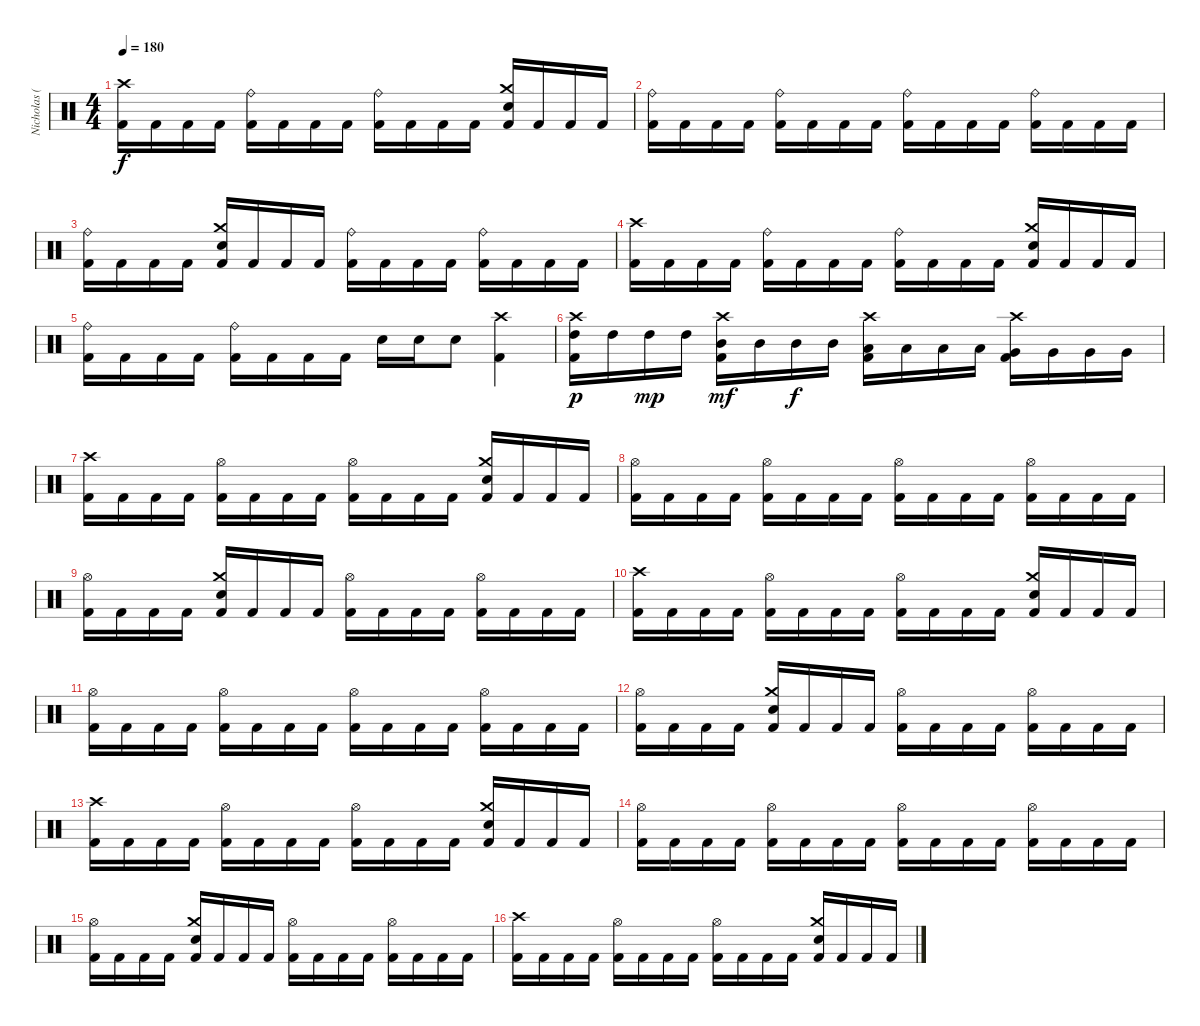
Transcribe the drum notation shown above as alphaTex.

\track ("Nicholas (Drums)" "Nicholas (") {instrument percussion}
\staff {score}
\articulation defaults
\ts (4 4)
\tempo 180
\clef neutral
\ks c
("Crash high (hit)" "Kick (hit) 2").16{dy f} "Kick (hit) 2".16 "Kick (hit) 2".16 "Kick (hit) 2".16 ("Ride (bell)" "Kick (hit) 2").16 "Kick (hit) 2".16 "Kick (hit) 2".16 "Kick (hit) 2".16 ("Ride (bell)" "Kick (hit) 2").16 "Kick (hit) 2".16 "Kick (hit) 2".16 "Kick (hit) 2".16 ("Crash medium (hit)" "Electric Snare (hit)" "Kick (hit) 2").16 "Kick (hit) 2".16 "Kick (hit) 2".16 "Kick (hit) 2".16 |
("Ride (bell)" "Kick (hit) 2").16 "Kick (hit) 2".16 "Kick (hit) 2".16 "Kick (hit) 2".16 ("Ride (bell)" "Kick (hit) 2").16 "Kick (hit) 2".16 "Kick (hit) 2".16 "Kick (hit) 2".16 ("Ride (bell)" "Kick (hit) 2").16 "Kick (hit) 2".16 "Kick (hit) 2".16 "Kick (hit) 2".16 ("Ride (bell)" "Kick (hit) 2").16 "Kick (hit) 2".16 "Kick (hit) 2".16 "Kick (hit) 2".16 |
("Ride (bell)" "Kick (hit) 2").16 "Kick (hit) 2".16 "Kick (hit) 2".16 "Kick (hit) 2".16 ("Crash medium (hit)" "Electric Snare (hit)" "Kick (hit) 2").16 "Kick (hit) 2".16 "Kick (hit) 2".16 "Kick (hit) 2".16 ("Ride (bell)" "Kick (hit) 2").16 "Kick (hit) 2".16 "Kick (hit) 2".16 "Kick (hit) 2".16 ("Ride (bell)" "Kick (hit) 2").16 "Kick (hit) 2".16 "Kick (hit) 2".16 "Kick (hit) 2".16 |
("Crash high (hit)" "Kick (hit) 2").16 "Kick (hit) 2".16 "Kick (hit) 2".16 "Kick (hit) 2".16 ("Ride (bell)" "Kick (hit) 2").16 "Kick (hit) 2".16 "Kick (hit) 2".16 "Kick (hit) 2".16 ("Ride (bell)" "Kick (hit) 2").16 "Kick (hit) 2".16 "Kick (hit) 2".16 "Kick (hit) 2".16 ("Crash medium (hit)" "Electric Snare (hit)" "Kick (hit) 2").16 "Kick (hit) 2".16 "Kick (hit) 2".16 "Kick (hit) 2".16 |
("Ride (bell)" "Kick (hit) 2").16 "Kick (hit) 2".16 "Kick (hit) 2".16 "Kick (hit) 2".16 ("Ride (bell)" "Kick (hit) 2").16 "Kick (hit) 2".16 "Kick (hit) 2".16 "Kick (hit) 2".16 "Electric Snare (hit)".16 "Electric Snare (hit)".16 "Electric Snare (hit)".8 ("Crash high (hit)" "Kick (hit) 2").4 |
("Crash high (hit)" "High Tom (hit)" "Kick (hit) 2").16{dy p} "High Tom (hit)".16 "High Tom (hit)".16{dy mp} "High Tom (hit)".16 ("Crash high (hit)" "Mid Tom (hit)" "Kick (hit) 2").16{dy mf} "Mid Tom (hit)".16 "Mid Tom (hit)".16{dy f} "Mid Tom (hit)".16 ("Crash high (hit)" "Low Tom (hit)" "Kick (hit) 2").16 "Low Tom (hit)".16 "Low Tom (hit)".16 "Low Tom (hit)".16 ("Crash high (hit)" "Very Low Tom (hit)" "Kick (hit) 2").16 "Very Low Tom (hit)".16 "Very Low Tom (hit)".16 "Very Low Tom (hit)".16 |
("Crash high (hit)" "Kick (hit) 2").16 "Kick (hit) 2".16 "Kick (hit) 2".16 "Kick (hit) 2".16 ("Hi-Hat (open)" "Kick (hit) 2").16 "Kick (hit) 2".16 "Kick (hit) 2".16 "Kick (hit) 2".16 ("Hi-Hat (open)" "Kick (hit) 2").16 "Kick (hit) 2".16 "Kick (hit) 2".16 "Kick (hit) 2".16 ("Crash medium (hit)" "Electric Snare (hit)" "Kick (hit) 2").16 "Kick (hit) 2".16 "Kick (hit) 2".16 "Kick (hit) 2".16 |
("Hi-Hat (open)" "Kick (hit) 2").16 "Kick (hit) 2".16 "Kick (hit) 2".16 "Kick (hit) 2".16 ("Hi-Hat (open)" "Kick (hit) 2").16 "Kick (hit) 2".16 "Kick (hit) 2".16 "Kick (hit) 2".16 ("Hi-Hat (open)" "Kick (hit) 2").16 "Kick (hit) 2".16 "Kick (hit) 2".16 "Kick (hit) 2".16 ("Hi-Hat (open)" "Kick (hit) 2").16 "Kick (hit) 2".16 "Kick (hit) 2".16 "Kick (hit) 2".16 |
("Hi-Hat (open)" "Kick (hit) 2").16 "Kick (hit) 2".16 "Kick (hit) 2".16 "Kick (hit) 2".16 ("Crash medium (hit)" "Electric Snare (hit)" "Kick (hit) 2").16 "Kick (hit) 2".16 "Kick (hit) 2".16 "Kick (hit) 2".16 ("Hi-Hat (open)" "Kick (hit) 2").16 "Kick (hit) 2".16 "Kick (hit) 2".16 "Kick (hit) 2".16 ("Hi-Hat (open)" "Kick (hit) 2").16 "Kick (hit) 2".16 "Kick (hit) 2".16 "Kick (hit) 2".16 |
("Crash high (hit)" "Kick (hit) 2").16 "Kick (hit) 2".16 "Kick (hit) 2".16 "Kick (hit) 2".16 ("Hi-Hat (open)" "Kick (hit) 2").16 "Kick (hit) 2".16 "Kick (hit) 2".16 "Kick (hit) 2".16 ("Hi-Hat (open)" "Kick (hit) 2").16 "Kick (hit) 2".16 "Kick (hit) 2".16 "Kick (hit) 2".16 ("Crash medium (hit)" "Electric Snare (hit)" "Kick (hit) 2").16 "Kick (hit) 2".16 "Kick (hit) 2".16 "Kick (hit) 2".16 |
("Hi-Hat (open)" "Kick (hit) 2").16 "Kick (hit) 2".16 "Kick (hit) 2".16 "Kick (hit) 2".16 ("Hi-Hat (open)" "Kick (hit) 2").16 "Kick (hit) 2".16 "Kick (hit) 2".16 "Kick (hit) 2".16 ("Hi-Hat (open)" "Kick (hit) 2").16 "Kick (hit) 2".16 "Kick (hit) 2".16 "Kick (hit) 2".16 ("Hi-Hat (open)" "Kick (hit) 2").16 "Kick (hit) 2".16 "Kick (hit) 2".16 "Kick (hit) 2".16 |
("Hi-Hat (open)" "Kick (hit) 2").16 "Kick (hit) 2".16 "Kick (hit) 2".16 "Kick (hit) 2".16 ("Crash medium (hit)" "Electric Snare (hit)" "Kick (hit) 2").16 "Kick (hit) 2".16 "Kick (hit) 2".16 "Kick (hit) 2".16 ("Hi-Hat (open)" "Kick (hit) 2").16 "Kick (hit) 2".16 "Kick (hit) 2".16 "Kick (hit) 2".16 ("Hi-Hat (open)" "Kick (hit) 2").16 "Kick (hit) 2".16 "Kick (hit) 2".16 "Kick (hit) 2".16 |
("Crash high (hit)" "Kick (hit) 2").16 "Kick (hit) 2".16 "Kick (hit) 2".16 "Kick (hit) 2".16 ("Hi-Hat (open)" "Kick (hit) 2").16 "Kick (hit) 2".16 "Kick (hit) 2".16 "Kick (hit) 2".16 ("Hi-Hat (open)" "Kick (hit) 2").16 "Kick (hit) 2".16 "Kick (hit) 2".16 "Kick (hit) 2".16 ("Crash medium (hit)" "Electric Snare (hit)" "Kick (hit) 2").16 "Kick (hit) 2".16 "Kick (hit) 2".16 "Kick (hit) 2".16 |
("Hi-Hat (open)" "Kick (hit) 2").16 "Kick (hit) 2".16 "Kick (hit) 2".16 "Kick (hit) 2".16 ("Hi-Hat (open)" "Kick (hit) 2").16 "Kick (hit) 2".16 "Kick (hit) 2".16 "Kick (hit) 2".16 ("Hi-Hat (open)" "Kick (hit) 2").16 "Kick (hit) 2".16 "Kick (hit) 2".16 "Kick (hit) 2".16 ("Hi-Hat (open)" "Kick (hit) 2").16 "Kick (hit) 2".16 "Kick (hit) 2".16 "Kick (hit) 2".16 |
("Hi-Hat (open)" "Kick (hit) 2").16 "Kick (hit) 2".16 "Kick (hit) 2".16 "Kick (hit) 2".16 ("Crash medium (hit)" "Electric Snare (hit)" "Kick (hit) 2").16 "Kick (hit) 2".16 "Kick (hit) 2".16 "Kick (hit) 2".16 ("Hi-Hat (open)" "Kick (hit) 2").16 "Kick (hit) 2".16 "Kick (hit) 2".16 "Kick (hit) 2".16 ("Hi-Hat (open)" "Kick (hit) 2").16 "Kick (hit) 2".16 "Kick (hit) 2".16 "Kick (hit) 2".16 |
("Crash high (hit)" "Kick (hit) 2").16 "Kick (hit) 2".16 "Kick (hit) 2".16 "Kick (hit) 2".16 ("Hi-Hat (open)" "Kick (hit) 2").16 "Kick (hit) 2".16 "Kick (hit) 2".16 "Kick (hit) 2".16 ("Hi-Hat (open)" "Kick (hit) 2").16 "Kick (hit) 2".16 "Kick (hit) 2".16 "Kick (hit) 2".16 ("Crash medium (hit)" "Electric Snare (hit)" "Kick (hit) 2").16 "Kick (hit) 2".16 "Kick (hit) 2".16 "Kick (hit) 2".16
